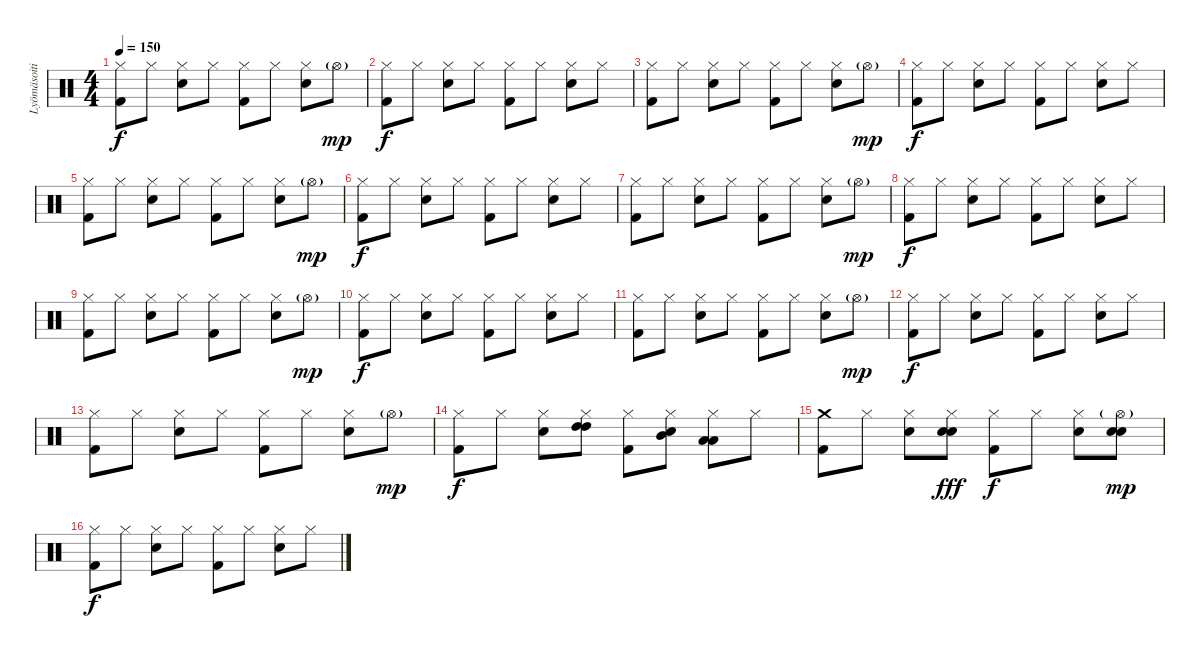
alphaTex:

\track ("Lyömäsoitin" "Lyömäsoiti") {instrument percussion}
\staff {score}
\articulation defaults
\ts (4 4)
\tempo 150
\clef neutral
\ks c
("Kick (hit) 2" "Hi-Hat (closed)").8{dy f} "Hi-Hat (closed)".8 ("Snare (hit) 2" "Hi-Hat (closed)").8 "Hi-Hat (closed)".8 ("Kick (hit) 2" "Hi-Hat (closed)").8 "Hi-Hat (closed)".8 ("Snare (hit) 2" "Hi-Hat (closed)").8 "Hi-Hat (open)"{g}.8{dy mp} |
("Kick (hit) 2" "Hi-Hat (closed)").8{dy f} "Hi-Hat (closed)".8 ("Snare (hit) 2" "Hi-Hat (closed)").8 "Hi-Hat (closed)".8 ("Kick (hit) 2" "Hi-Hat (closed)").8 "Hi-Hat (closed)".8 ("Snare (hit) 2" "Hi-Hat (closed)").8 "Hi-Hat (closed)".8 |
("Kick (hit) 2" "Hi-Hat (closed)").8 "Hi-Hat (closed)".8 ("Snare (hit) 2" "Hi-Hat (closed)").8 "Hi-Hat (closed)".8 ("Kick (hit) 2" "Hi-Hat (closed)").8 "Hi-Hat (closed)".8 ("Snare (hit) 2" "Hi-Hat (closed)").8 "Hi-Hat (open)"{g}.8{dy mp} |
("Kick (hit) 2" "Hi-Hat (closed)").8{dy f} "Hi-Hat (closed)".8 ("Snare (hit) 2" "Hi-Hat (closed)").8 "Hi-Hat (closed)".8 ("Kick (hit) 2" "Hi-Hat (closed)").8 "Hi-Hat (closed)".8 ("Snare (hit) 2" "Hi-Hat (closed)").8 "Hi-Hat (closed)".8 |
("Kick (hit) 2" "Hi-Hat (closed)").8 "Hi-Hat (closed)".8 ("Snare (hit) 2" "Hi-Hat (closed)").8 "Hi-Hat (closed)".8 ("Kick (hit) 2" "Hi-Hat (closed)").8 "Hi-Hat (closed)".8 ("Snare (hit) 2" "Hi-Hat (closed)").8 "Hi-Hat (open)"{g}.8{dy mp} |
("Kick (hit) 2" "Hi-Hat (closed)").8{dy f} "Hi-Hat (closed)".8 ("Snare (hit) 2" "Hi-Hat (closed)").8 "Hi-Hat (closed)".8 ("Kick (hit) 2" "Hi-Hat (closed)").8 "Hi-Hat (closed)".8 ("Snare (hit) 2" "Hi-Hat (closed)").8 "Hi-Hat (closed)".8 |
("Kick (hit) 2" "Hi-Hat (closed)").8 "Hi-Hat (closed)".8 ("Snare (hit) 2" "Hi-Hat (closed)").8 "Hi-Hat (closed)".8 ("Kick (hit) 2" "Hi-Hat (closed)").8 "Hi-Hat (closed)".8 ("Snare (hit) 2" "Hi-Hat (closed)").8 "Hi-Hat (open)"{g}.8{dy mp} |
("Kick (hit) 2" "Hi-Hat (closed)").8{dy f} "Hi-Hat (closed)".8 ("Snare (hit) 2" "Hi-Hat (closed)").8 "Hi-Hat (closed)".8 ("Kick (hit) 2" "Hi-Hat (closed)").8 "Hi-Hat (closed)".8 ("Snare (hit) 2" "Hi-Hat (closed)").8 "Hi-Hat (closed)".8 |
("Kick (hit) 2" "Hi-Hat (closed)").8 "Hi-Hat (closed)".8 ("Snare (hit) 2" "Hi-Hat (closed)").8 "Hi-Hat (closed)".8 ("Kick (hit) 2" "Hi-Hat (closed)").8 "Hi-Hat (closed)".8 ("Snare (hit) 2" "Hi-Hat (closed)").8 "Hi-Hat (open)"{g}.8{dy mp} |
("Kick (hit) 2" "Hi-Hat (closed)").8{dy f} "Hi-Hat (closed)".8 ("Snare (hit) 2" "Hi-Hat (closed)").8 "Hi-Hat (closed)".8 ("Kick (hit) 2" "Hi-Hat (closed)").8 "Hi-Hat (closed)".8 ("Snare (hit) 2" "Hi-Hat (closed)").8 "Hi-Hat (closed)".8 |
("Kick (hit) 2" "Hi-Hat (closed)").8 "Hi-Hat (closed)".8 ("Snare (hit) 2" "Hi-Hat (closed)").8 "Hi-Hat (closed)".8 ("Kick (hit) 2" "Hi-Hat (closed)").8 "Hi-Hat (closed)".8 ("Snare (hit) 2" "Hi-Hat (closed)").8 "Hi-Hat (open)"{g}.8{dy mp} |
("Kick (hit) 2" "Hi-Hat (closed)").8{dy f} "Hi-Hat (closed)".8 ("Snare (hit) 2" "Hi-Hat (closed)").8 "Hi-Hat (closed)".8 ("Kick (hit) 2" "Hi-Hat (closed)").8 "Hi-Hat (closed)".8 ("Snare (hit) 2" "Hi-Hat (closed)").8 "Hi-Hat (closed)".8 |
("Kick (hit) 2" "Hi-Hat (closed)").8 "Hi-Hat (closed)".8 ("Snare (hit) 2" "Hi-Hat (closed)").8 "Hi-Hat (closed)".8 ("Kick (hit) 2" "Hi-Hat (closed)").8 "Hi-Hat (closed)".8 ("Snare (hit) 2" "Hi-Hat (closed)").8 "Hi-Hat (open)"{g}.8{dy mp} |
("Kick (hit) 2" "Hi-Hat (closed)").8{dy f} "Hi-Hat (closed)".8 ("Snare (hit) 2" "Hi-Hat (closed)").8 ("High Tom (hit)" "High Tom (hit)" "Hi-Hat (closed)").8 ("Kick (hit) 2" "Hi-Hat (closed)").8 ("Snare (hit) 2" "Mid Tom (hit)" "Hi-Hat (closed)").8 ("Low Tom (hit)" "Low Tom (hit)" "Hi-Hat (closed)").8 "Hi-Hat (closed)".8 |
("Kick (hit) 2" "Crash medium (hit)").8 "Hi-Hat (closed)".8 ("Snare (hit) 2" "Hi-Hat (closed)").8 ("Electric Snare (hit)" "Hand Clap (hit)" "Hi-Hat (closed)").8{dy fff} ("Kick (hit) 2" "Hi-Hat (closed)").8{dy f} "Hi-Hat (closed)".8 ("Snare (hit) 2" "Hi-Hat (closed)").8 ("Electric Snare (hit)" "Hand Clap (hit)" "Hi-Hat (open)"{g}).8{dy mp} |
("Kick (hit) 2" "Hi-Hat (closed)").8{dy f} "Hi-Hat (closed)".8 ("Snare (hit) 2" "Hi-Hat (closed)").8 "Hi-Hat (closed)".8 ("Kick (hit) 2" "Hi-Hat (closed)").8 "Hi-Hat (closed)".8 ("Snare (hit) 2" "Hi-Hat (closed)").8 "Hi-Hat (closed)".8
